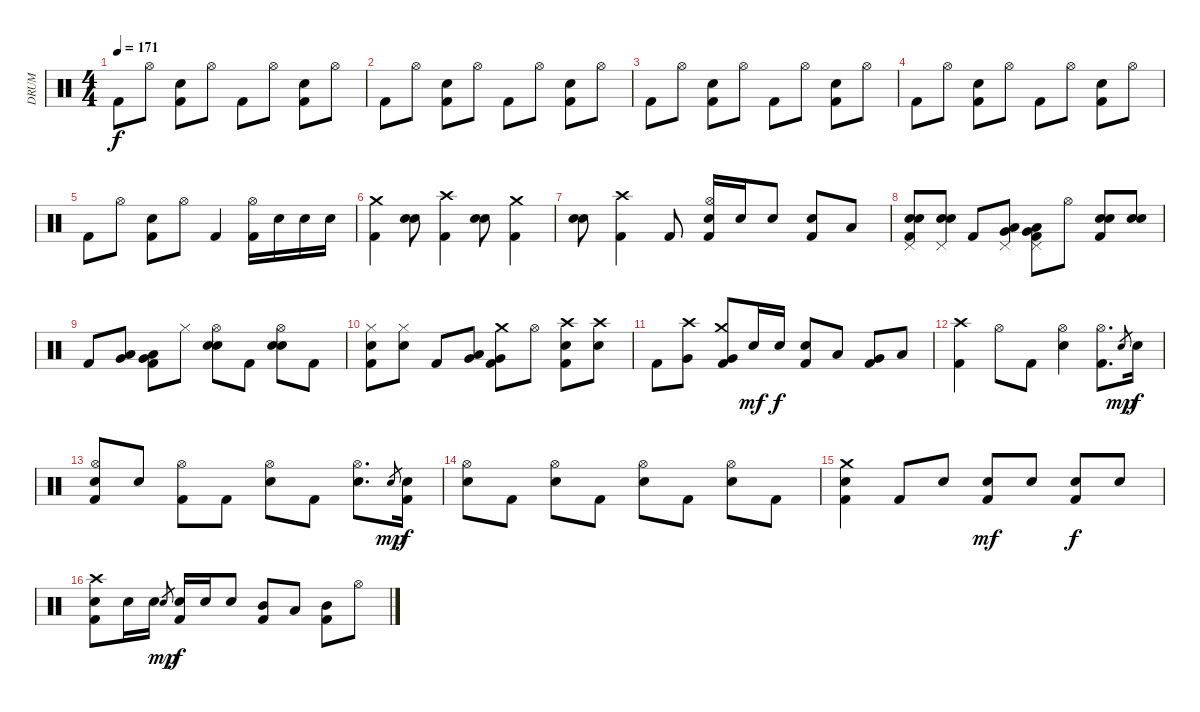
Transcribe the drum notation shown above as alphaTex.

\track ("DRUM" "DRUM") {instrument percussion}
\staff {score}
\articulation defaults
\ts (4 4)
\tempo 171
\clef neutral
\ks c "Kick (hit) 2".8{dy f} "Hi-Hat (open)".8
("Electric Snare (hit)" "Kick (hit) 2").8 "Hi-Hat (open)".8 "Kick (hit) 2".8 "Hi-Hat (open)".8 ("Electric Snare (hit)" "Kick (hit) 2").8 "Hi-Hat (open)".8 |
"Kick (hit) 2".8 "Hi-Hat (open)".8 ("Electric Snare (hit)" "Kick (hit) 2").8 "Hi-Hat (open)".8 "Kick (hit) 2".8 "Hi-Hat (open)".8 ("Electric Snare (hit)" "Kick (hit) 2").8 "Hi-Hat (open)".8 |
"Kick (hit) 2".8 "Hi-Hat (open)".8 ("Electric Snare (hit)" "Kick (hit) 2").8 "Hi-Hat (open)".8 "Kick (hit) 2".8 "Hi-Hat (open)".8 ("Electric Snare (hit)" "Kick (hit) 2").8 "Hi-Hat (open)".8 |
"Kick (hit) 2".8 "Hi-Hat (open)".8 ("Electric Snare (hit)" "Kick (hit) 2").8 "Hi-Hat (open)".8 "Kick (hit) 2".8 "Hi-Hat (open)".8 ("Electric Snare (hit)" "Kick (hit) 2").8 "Hi-Hat (open)".8 |
"Kick (hit) 2".8 "Hi-Hat (open)".8 ("Electric Snare (hit)" "Kick (hit) 2").8 "Hi-Hat (open)".8 "Kick (hit) 2".4 ("Hi-Hat (open)" "Kick (hit) 2").16 "Electric Snare (hit)".16 "Electric Snare (hit)".16 "Electric Snare (hit)".16 |
("Crash medium (hit)" "Kick (hit) 2").4 ("Electric Snare (hit)" "Electric Snare (hit)").8 ("Crash high (hit)" "Kick (hit) 2").4 ("Electric Snare (hit)" "Electric Snare (hit)").8 ("Crash medium (hit)" "Kick (hit) 2").4 |
("Electric Snare (hit)" "Electric Snare (hit)").8 ("Crash high (hit)" "Kick (hit) 2").4 "Kick (hit) 2".8 ("Hi-Hat (open)" "Electric Snare (hit)" "Kick (hit) 2").16 "Electric Snare (hit)".16 "Electric Snare (hit)".8 ("Electric Snare (hit)" "Kick (hit) 2").8 "Low Tom (hit)".8 |
("Pedal Hi-Hat (hit)" "Electric Snare (hit)" "Electric Snare (hit)" "Kick (hit) 2").8 ("Pedal Hi-Hat (hit)" "Electric Snare (hit)" "Electric Snare (hit)").8 "Kick (hit) 2".8 ("Pedal Hi-Hat (hit)" "Low Tom (hit)" "Very Low Tom (hit)").8 ("Pedal Hi-Hat (hit)" "Low Tom (hit)" "Very Low Tom (hit)" "Kick (hit) 2").8 "Hi-Hat (open)".8 ("Electric Snare (hit)" "Electric Snare (hit)" "Kick (hit) 2").8 ("Electric Snare (hit)" "Electric Snare (hit)").8 |
"Kick (hit) 2".8 ("Low Tom (hit)" "Very Low Tom (hit)").8 ("Low Tom (hit)" "Very Low Tom (hit)" "Kick (hit) 2").8 "Hi-Hat (closed)".8 ("Hi-Hat (open)" "Electric Snare (hit)" "Electric Snare (hit)").8{bd 480} "Kick (hit) 2".8 ("Hi-Hat (open)" "Electric Snare (hit)" "Electric Snare (hit)").8{bu 480} "Kick (hit) 2".8 |
("Hi-Hat (closed)" "Electric Snare (hit)" "Kick (hit) 2").8 ("Hi-Hat (closed)" "Electric Snare (hit)").8 "Kick (hit) 2".8 ("Low Tom (hit)" "Very Low Tom (hit)").8 ("Crash medium (hit)" "Very Low Tom (hit)" "Kick (hit) 2").8 "Hi-Hat (open)".8 ("Crash high (hit)" "Electric Snare (hit)" "Kick (hit) 2").8 ("Crash high (hit)" "Electric Snare (hit)").8 |
"Kick (hit) 2".8 ("Crash high (hit)" "Very Low Tom (hit)").8 ("Crash medium (hit)" "Very Low Tom (hit)" "Kick (hit) 2").8 "Electric Snare (hit)".16{dy mf} "Electric Snare (hit)".16{dy f} ("Electric Snare (hit)" "Kick (hit) 2").8 "Low Tom (hit)".8 ("Very Low Tom (hit)" "Kick (hit) 2").8 "Low Floor Tom (hit)".8 |
("Crash high (hit)" "Kick (hit) 2").4 "Hi-Hat (open)".8 "Kick (hit) 2".8 ("Hi-Hat (open)" "Electric Snare (hit)").4 ("Hi-Hat (open)" "Kick (hit) 2").8{d} "Electric Snare (hit)".8{gr dy mp} "Electric Snare (hit)".16{dy f} |
("Hi-Hat (open)" "Electric Snare (hit)" "Kick (hit) 2").8 "Electric Snare (hit)".8 ("Hi-Hat (open)" "Kick (hit) 2").8 "Kick (hit) 2".8 ("Hi-Hat (open)" "Electric Snare (hit)").8 "Kick (hit) 2".8 ("Hi-Hat (open)" "Electric Snare (hit)").8{d} "Electric Snare (hit)".8{gr dy mp} ("Electric Snare (hit)" "Kick (hit) 2").16{dy f} |
("Hi-Hat (open)" "Electric Snare (hit)").8 "Kick (hit) 2".8 ("Hi-Hat (open)" "Electric Snare (hit)").8 "Kick (hit) 2".8 ("Hi-Hat (open)" "Electric Snare (hit)").8 "Kick (hit) 2".8 ("Hi-Hat (open)" "Electric Snare (hit)").8 "Kick (hit) 2".8 |
("Crash medium (hit)" "Electric Snare (hit)" "Kick (hit) 2").4 "Kick (hit) 2".8 "Electric Snare (hit)".8 ("Electric Snare (hit)" "Kick (hit) 2").8{dy mf} "Electric Snare (hit)".8 ("Electric Snare (hit)" "Kick (hit) 2").8{dy f} "Electric Snare (hit)".8 |
("Crash high (hit)" "Electric Snare (hit)" "Kick (hit) 2").8 "Electric Snare (hit)".16 "Electric Snare (hit)".16 "Electric Snare (hit)".8{gr dy mp} ("Electric Snare (hit)" "Kick (hit) 2").16{dy f} "Electric Snare (hit)".16 "Electric Snare (hit)".8 ("Mid Tom (hit)" "Kick (hit) 2").8 "Low Tom (hit)".8 ("Mid Tom (hit)" "Kick (hit) 2").8 "Hi-Hat (open)".8
